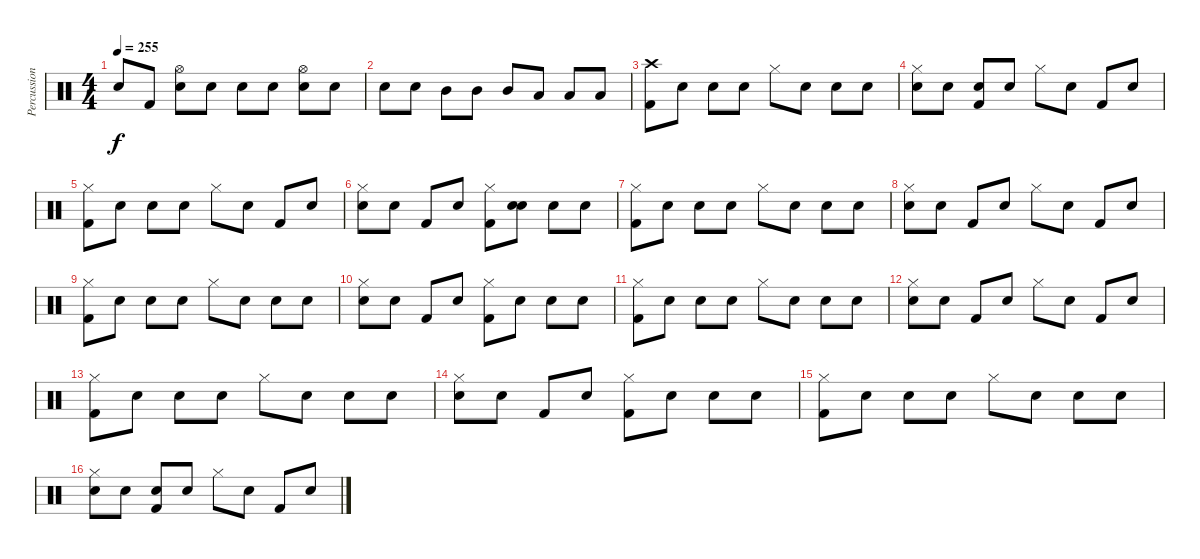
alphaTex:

\track ("Percussion" "Percussion") {instrument percussion}
\staff {score}
\articulation defaults
\ts (4 4)
\tempo 255
\clef neutral
\ks c "Snare (hit)"{x}.8{dy f} "Kick (hit) 2".8
("Snare (hit) 2" "Hi-Hat (open)").8 "Snare (hit)"{x}.8 "Snare (hit)"{x}.8 "Snare (hit)"{x}.8 ("Snare (hit) 2" "Hi-Hat (open)").8 "Snare (hit) 2".8 |
"Snare (hit) 2".8 "Snare (hit) 2".8 "Mid Tom (hit)".8 "Mid Tom (hit)".8 "Mid Tom (hit)".8 "Low Tom (hit)".8 "Low Tom (hit)".8 "Low Tom (hit)".8 |
("Kick (hit) 2" "Crash high (hit)").8 "Snare (hit)"{x}.8 "Snare (hit)"{x}.8 "Snare (hit)"{x}.8 "Hi-Hat (closed)".8 "Snare (hit)"{x}.8 "Snare (hit)"{x}.8 "Snare (hit)"{x}.8 |
("Snare (hit) 2" "Hi-Hat (closed)").8 "Snare (hit)"{x}.8 ("Kick (hit) 2" "Snare (hit)"{x}).8 "Snare (hit)"{x}.8 "Hi-Hat (closed)".8 "Snare (hit)"{x}.8 "Kick (hit) 2".8 "Snare (hit)"{x}.8 |
("Kick (hit) 2" "Hi-Hat (closed)").8 "Snare (hit)"{x}.8 "Snare (hit)"{x}.8 "Snare (hit)"{x}.8 "Hi-Hat (closed)".8 "Snare (hit)"{x}.8 "Kick (hit) 2"{x}.8 "Snare (hit)"{x}.8 |
("Snare (hit) 2" "Hi-Hat (closed)").8 "Snare (hit)"{x}.8 "Kick (hit) 2".8 "Snare (hit)"{x}.8 ("Kick (hit) 2" "Hi-Hat (closed)").8 ("Snare (hit)"{x} "Snare (hit)"{x}).8 "Snare (hit)"{x}.8 "Snare (hit)"{x}.8 |
("Kick (hit) 2" "Hi-Hat (closed)").8 "Snare (hit)"{x}.8 "Snare (hit)"{x}.8 "Snare (hit)"{x}.8 "Hi-Hat (closed)".8 "Snare (hit)"{x}.8 "Snare (hit)"{x}.8 "Snare (hit)"{x}.8 |
("Snare (hit) 2" "Hi-Hat (closed)").8 "Snare (hit)"{x}.8 "Kick (hit) 2".8 "Snare (hit)"{x}.8 "Hi-Hat (closed)".8 "Snare (hit)"{x}.8 "Kick (hit) 2".8 "Snare (hit)"{x}.8 |
("Kick (hit) 2" "Hi-Hat (closed)").8 "Snare (hit)"{x}.8 "Snare (hit)"{x}.8 "Snare (hit)"{x}.8 "Hi-Hat (closed)".8 "Snare (hit)"{x}.8 "Snare (hit)"{x}.8 "Snare (hit)"{x}.8 |
("Snare (hit) 2" "Hi-Hat (closed)").8 "Snare (hit)"{x}.8 "Kick (hit) 2".8 "Snare (hit)"{x}.8 ("Kick (hit) 2" "Hi-Hat (closed)").8 "Snare (hit)"{x}.8 "Snare (hit)"{x}.8 "Snare (hit)"{x}.8 |
("Kick (hit) 2" "Hi-Hat (closed)").8 "Snare (hit)"{x}.8 "Snare (hit)"{x}.8 "Snare (hit)"{x}.8 "Hi-Hat (closed)".8 "Snare (hit)"{x}.8 "Snare (hit)"{x}.8 "Snare (hit)"{x}.8 |
("Snare (hit) 2" "Hi-Hat (closed)").8 "Snare (hit)"{x}.8 "Kick (hit) 2".8 "Snare (hit)"{x}.8 "Hi-Hat (closed)".8 "Snare (hit)"{x}.8 "Kick (hit) 2".8 "Snare (hit)"{x}.8 |
("Kick (hit) 2" "Hi-Hat (closed)").8 "Snare (hit)"{x}.8 "Snare (hit)"{x}.8 "Snare (hit)"{x}.8 "Hi-Hat (closed)".8 "Snare (hit)"{x}.8 "Snare (hit)"{x}.8 "Snare (hit)"{x}.8 |
("Snare (hit) 2" "Hi-Hat (closed)").8 "Snare (hit)"{x}.8 "Kick (hit) 2".8 "Snare (hit)"{x}.8 ("Kick (hit) 2" "Hi-Hat (closed)").8 "Snare (hit)"{x}.8 "Snare (hit)"{x}.8 "Snare (hit)"{x}.8 |
("Kick (hit) 2" "Hi-Hat (closed)").8 "Snare (hit)"{x}.8 "Snare (hit)"{x}.8 "Snare (hit)"{x}.8 "Hi-Hat (closed)".8 "Snare (hit)"{x}.8 "Snare (hit)"{x}.8 "Snare (hit)"{x}.8 |
("Snare (hit) 2" "Hi-Hat (closed)").8 "Snare (hit)"{x}.8 ("Kick (hit) 2" "Snare (hit)"{x}).8 "Snare (hit)"{x}.8 "Hi-Hat (closed)".8 "Snare (hit)"{x}.8 "Kick (hit) 2".8 "Snare (hit)"{x}.8
